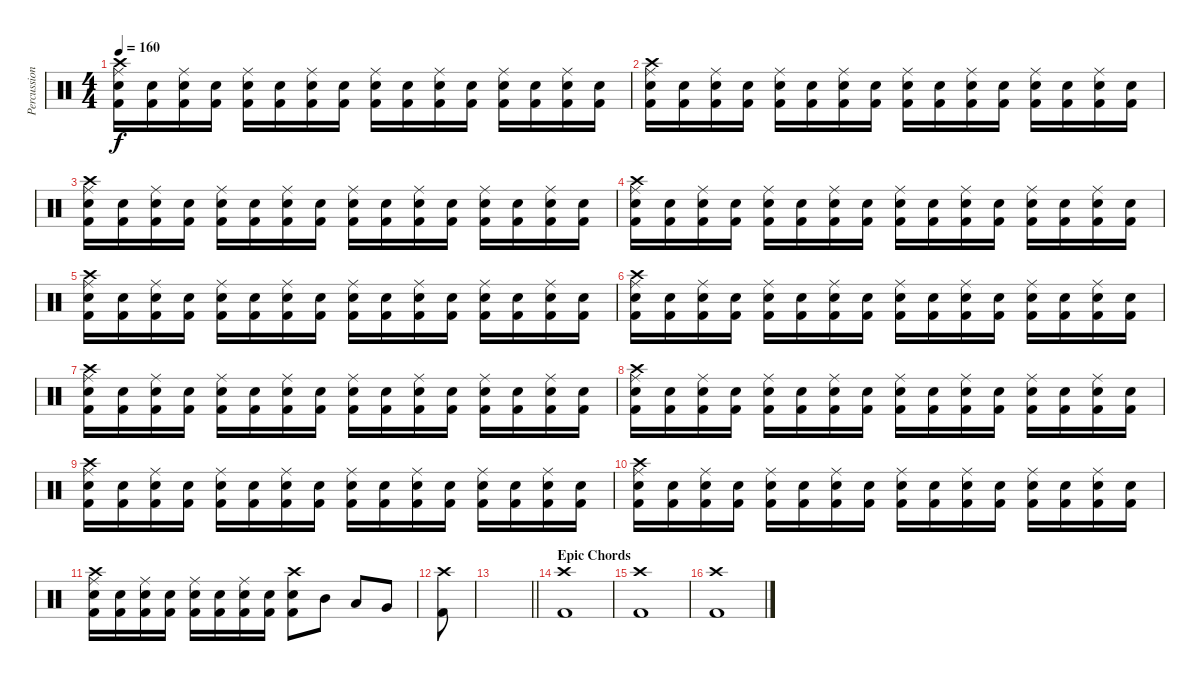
\track ("Percussion" "Percussion") {instrument percussion}
\staff {score}
\articulation defaults
\ts (4 4)
\tempo 160
\clef neutral
\ks c
("Crash high (hit)" "Ride (middle)" "Snare (hit) 2" "Kick (hit) 2").16{dy f} ("Snare (hit) 2" "Kick (hit) 2").16 ("Ride (middle)" "Snare (hit) 2" "Kick (hit) 2").16 ("Snare (hit) 2" "Kick (hit) 2").16 ("Ride (middle)" "Snare (hit) 2" "Kick (hit) 2").16 ("Snare (hit) 2" "Kick (hit) 2").16 ("Ride (middle)" "Snare (hit) 2" "Kick (hit) 2").16 ("Snare (hit) 2" "Kick (hit) 2").16 ("Ride (middle)" "Snare (hit) 2" "Kick (hit) 2").16 ("Snare (hit) 2" "Kick (hit) 2").16 ("Ride (middle)" "Snare (hit) 2" "Kick (hit) 2").16 ("Snare (hit) 2" "Kick (hit) 2").16 ("Ride (middle)" "Snare (hit) 2" "Kick (hit) 2").16 ("Snare (hit) 2" "Kick (hit) 2").16 ("Ride (middle)" "Snare (hit) 2" "Kick (hit) 2").16 ("Snare (hit) 2" "Kick (hit) 2").16 |
("Crash high (hit)" "Ride (middle)" "Snare (hit) 2" "Kick (hit) 2").16 ("Snare (hit) 2" "Kick (hit) 2").16 ("Ride (middle)" "Snare (hit) 2" "Kick (hit) 2").16 ("Snare (hit) 2" "Kick (hit) 2").16 ("Ride (middle)" "Snare (hit) 2" "Kick (hit) 2").16 ("Snare (hit) 2" "Kick (hit) 2").16 ("Ride (middle)" "Snare (hit) 2" "Kick (hit) 2").16 ("Snare (hit) 2" "Kick (hit) 2").16 ("Ride (middle)" "Snare (hit) 2" "Kick (hit) 2").16 ("Snare (hit) 2" "Kick (hit) 2").16 ("Ride (middle)" "Snare (hit) 2" "Kick (hit) 2").16 ("Snare (hit) 2" "Kick (hit) 2").16 ("Ride (middle)" "Snare (hit) 2" "Kick (hit) 2").16 ("Snare (hit) 2" "Kick (hit) 2").16 ("Ride (middle)" "Snare (hit) 2" "Kick (hit) 2").16 ("Snare (hit) 2" "Kick (hit) 2").16 |
("Crash high (hit)" "Ride (middle)" "Snare (hit) 2" "Kick (hit) 2").16 ("Snare (hit) 2" "Kick (hit) 2").16 ("Ride (middle)" "Snare (hit) 2" "Kick (hit) 2").16 ("Snare (hit) 2" "Kick (hit) 2").16 ("Ride (middle)" "Snare (hit) 2" "Kick (hit) 2").16 ("Snare (hit) 2" "Kick (hit) 2").16 ("Ride (middle)" "Snare (hit) 2" "Kick (hit) 2").16 ("Snare (hit) 2" "Kick (hit) 2").16 ("Ride (middle)" "Snare (hit) 2" "Kick (hit) 2").16 ("Snare (hit) 2" "Kick (hit) 2").16 ("Ride (middle)" "Snare (hit) 2" "Kick (hit) 2").16 ("Snare (hit) 2" "Kick (hit) 2").16 ("Ride (middle)" "Snare (hit) 2" "Kick (hit) 2").16 ("Snare (hit) 2" "Kick (hit) 2").16 ("Ride (middle)" "Snare (hit) 2" "Kick (hit) 2").16 ("Snare (hit) 2" "Kick (hit) 2").16 |
("Crash high (hit)" "Ride (middle)" "Snare (hit) 2" "Kick (hit) 2").16 ("Snare (hit) 2" "Kick (hit) 2").16 ("Ride (middle)" "Snare (hit) 2" "Kick (hit) 2").16 ("Snare (hit) 2" "Kick (hit) 2").16 ("Ride (middle)" "Snare (hit) 2" "Kick (hit) 2").16 ("Snare (hit) 2" "Kick (hit) 2").16 ("Ride (middle)" "Snare (hit) 2" "Kick (hit) 2").16 ("Snare (hit) 2" "Kick (hit) 2").16 ("Ride (middle)" "Snare (hit) 2" "Kick (hit) 2").16 ("Snare (hit) 2" "Kick (hit) 2").16 ("Ride (middle)" "Snare (hit) 2" "Kick (hit) 2").16 ("Snare (hit) 2" "Kick (hit) 2").16 ("Ride (middle)" "Snare (hit) 2" "Kick (hit) 2").16 ("Snare (hit) 2" "Kick (hit) 2").16 ("Ride (middle)" "Snare (hit) 2" "Kick (hit) 2").16 ("Snare (hit) 2" "Kick (hit) 2").16 |
("Crash high (hit)" "Ride (middle)" "Snare (hit) 2" "Kick (hit) 2").16 ("Snare (hit) 2" "Kick (hit) 2").16 ("Ride (middle)" "Snare (hit) 2" "Kick (hit) 2").16 ("Snare (hit) 2" "Kick (hit) 2").16 ("Ride (middle)" "Snare (hit) 2" "Kick (hit) 2").16 ("Snare (hit) 2" "Kick (hit) 2").16 ("Ride (middle)" "Snare (hit) 2" "Kick (hit) 2").16 ("Snare (hit) 2" "Kick (hit) 2").16 ("Ride (middle)" "Snare (hit) 2" "Kick (hit) 2").16 ("Snare (hit) 2" "Kick (hit) 2").16 ("Ride (middle)" "Snare (hit) 2" "Kick (hit) 2").16 ("Snare (hit) 2" "Kick (hit) 2").16 ("Ride (middle)" "Snare (hit) 2" "Kick (hit) 2").16 ("Snare (hit) 2" "Kick (hit) 2").16 ("Ride (middle)" "Snare (hit) 2" "Kick (hit) 2").16 ("Snare (hit) 2" "Kick (hit) 2").16 |
("Crash high (hit)" "Ride (middle)" "Snare (hit) 2" "Kick (hit) 2").16 ("Snare (hit) 2" "Kick (hit) 2").16 ("Ride (middle)" "Snare (hit) 2" "Kick (hit) 2").16 ("Snare (hit) 2" "Kick (hit) 2").16 ("Ride (middle)" "Snare (hit) 2" "Kick (hit) 2").16 ("Snare (hit) 2" "Kick (hit) 2").16 ("Ride (middle)" "Snare (hit) 2" "Kick (hit) 2").16 ("Snare (hit) 2" "Kick (hit) 2").16 ("Ride (middle)" "Snare (hit) 2" "Kick (hit) 2").16 ("Snare (hit) 2" "Kick (hit) 2").16 ("Ride (middle)" "Snare (hit) 2" "Kick (hit) 2").16 ("Snare (hit) 2" "Kick (hit) 2").16 ("Ride (middle)" "Snare (hit) 2" "Kick (hit) 2").16 ("Snare (hit) 2" "Kick (hit) 2").16 ("Ride (middle)" "Snare (hit) 2" "Kick (hit) 2").16 ("Snare (hit) 2" "Kick (hit) 2").16 |
("Crash high (hit)" "Ride (middle)" "Snare (hit) 2" "Kick (hit) 2").16 ("Snare (hit) 2" "Kick (hit) 2").16 ("Ride (middle)" "Snare (hit) 2" "Kick (hit) 2").16 ("Snare (hit) 2" "Kick (hit) 2").16 ("Ride (middle)" "Snare (hit) 2" "Kick (hit) 2").16 ("Snare (hit) 2" "Kick (hit) 2").16 ("Ride (middle)" "Snare (hit) 2" "Kick (hit) 2").16 ("Snare (hit) 2" "Kick (hit) 2").16 ("Ride (middle)" "Snare (hit) 2" "Kick (hit) 2").16 ("Snare (hit) 2" "Kick (hit) 2").16 ("Ride (middle)" "Snare (hit) 2" "Kick (hit) 2").16 ("Snare (hit) 2" "Kick (hit) 2").16 ("Ride (middle)" "Snare (hit) 2" "Kick (hit) 2").16 ("Snare (hit) 2" "Kick (hit) 2").16 ("Ride (middle)" "Snare (hit) 2" "Kick (hit) 2").16 ("Snare (hit) 2" "Kick (hit) 2").16 |
("Crash high (hit)" "Ride (middle)" "Snare (hit) 2" "Kick (hit) 2").16 ("Snare (hit) 2" "Kick (hit) 2").16 ("Ride (middle)" "Snare (hit) 2" "Kick (hit) 2").16 ("Snare (hit) 2" "Kick (hit) 2").16 ("Ride (middle)" "Snare (hit) 2" "Kick (hit) 2").16 ("Snare (hit) 2" "Kick (hit) 2").16 ("Ride (middle)" "Snare (hit) 2" "Kick (hit) 2").16 ("Snare (hit) 2" "Kick (hit) 2").16 ("Ride (middle)" "Snare (hit) 2" "Kick (hit) 2").16 ("Snare (hit) 2" "Kick (hit) 2").16 ("Ride (middle)" "Snare (hit) 2" "Kick (hit) 2").16 ("Snare (hit) 2" "Kick (hit) 2").16 ("Ride (middle)" "Snare (hit) 2" "Kick (hit) 2").16 ("Snare (hit) 2" "Kick (hit) 2").16 ("Ride (middle)" "Snare (hit) 2" "Kick (hit) 2").16 ("Snare (hit) 2" "Kick (hit) 2").16 |
("Crash high (hit)" "Ride (middle)" "Snare (hit) 2" "Kick (hit) 2").16 ("Snare (hit) 2" "Kick (hit) 2").16 ("Ride (middle)" "Snare (hit) 2" "Kick (hit) 2").16 ("Snare (hit) 2" "Kick (hit) 2").16 ("Ride (middle)" "Snare (hit) 2" "Kick (hit) 2").16 ("Snare (hit) 2" "Kick (hit) 2").16 ("Ride (middle)" "Snare (hit) 2" "Kick (hit) 2").16 ("Snare (hit) 2" "Kick (hit) 2").16 ("Ride (middle)" "Snare (hit) 2" "Kick (hit) 2").16 ("Snare (hit) 2" "Kick (hit) 2").16 ("Ride (middle)" "Snare (hit) 2" "Kick (hit) 2").16 ("Snare (hit) 2" "Kick (hit) 2").16 ("Ride (middle)" "Snare (hit) 2" "Kick (hit) 2").16 ("Snare (hit) 2" "Kick (hit) 2").16 ("Ride (middle)" "Snare (hit) 2" "Kick (hit) 2").16 ("Snare (hit) 2" "Kick (hit) 2").16 |
("Crash high (hit)" "Ride (middle)" "Snare (hit) 2" "Kick (hit) 2").16 ("Snare (hit) 2" "Kick (hit) 2").16 ("Ride (middle)" "Snare (hit) 2" "Kick (hit) 2").16 ("Snare (hit) 2" "Kick (hit) 2").16 ("Ride (middle)" "Snare (hit) 2" "Kick (hit) 2").16 ("Snare (hit) 2" "Kick (hit) 2").16 ("Ride (middle)" "Snare (hit) 2" "Kick (hit) 2").16 ("Snare (hit) 2" "Kick (hit) 2").16 ("Ride (middle)" "Snare (hit) 2" "Kick (hit) 2").16 ("Snare (hit) 2" "Kick (hit) 2").16 ("Ride (middle)" "Snare (hit) 2" "Kick (hit) 2").16 ("Snare (hit) 2" "Kick (hit) 2").16 ("Ride (middle)" "Snare (hit) 2" "Kick (hit) 2").16 ("Snare (hit) 2" "Kick (hit) 2").16 ("Ride (middle)" "Snare (hit) 2" "Kick (hit) 2").16 ("Snare (hit) 2" "Kick (hit) 2").16 |
("Crash high (hit)" "Ride (middle)" "Snare (hit) 2" "Kick (hit) 2").16 ("Snare (hit) 2" "Kick (hit) 2").16 ("Ride (middle)" "Snare (hit) 2" "Kick (hit) 2").16 ("Snare (hit) 2" "Kick (hit) 2").16 ("Ride (middle)" "Snare (hit) 2" "Kick (hit) 2").16 ("Snare (hit) 2" "Kick (hit) 2").16 ("Ride (middle)" "Snare (hit) 2" "Kick (hit) 2").16 ("Snare (hit) 2" "Kick (hit) 2").16 ("Crash high (hit)" "Snare (hit) 2" "Kick (hit) 2").8 "Mid Tom (hit)".8 "Low Tom (hit)".8 "Very Low Tom (hit)".8 |
("Crash high (hit)" "Kick (hit) 2").8 |
\barLineRight lightlight
|
\section ("" "Epic Chords")
("Crash high (hit)" "Kick (hit) 2").1 |
("Crash high (hit)" "Kick (hit) 2").1 |
("Crash high (hit)" "Kick (hit) 2").1
